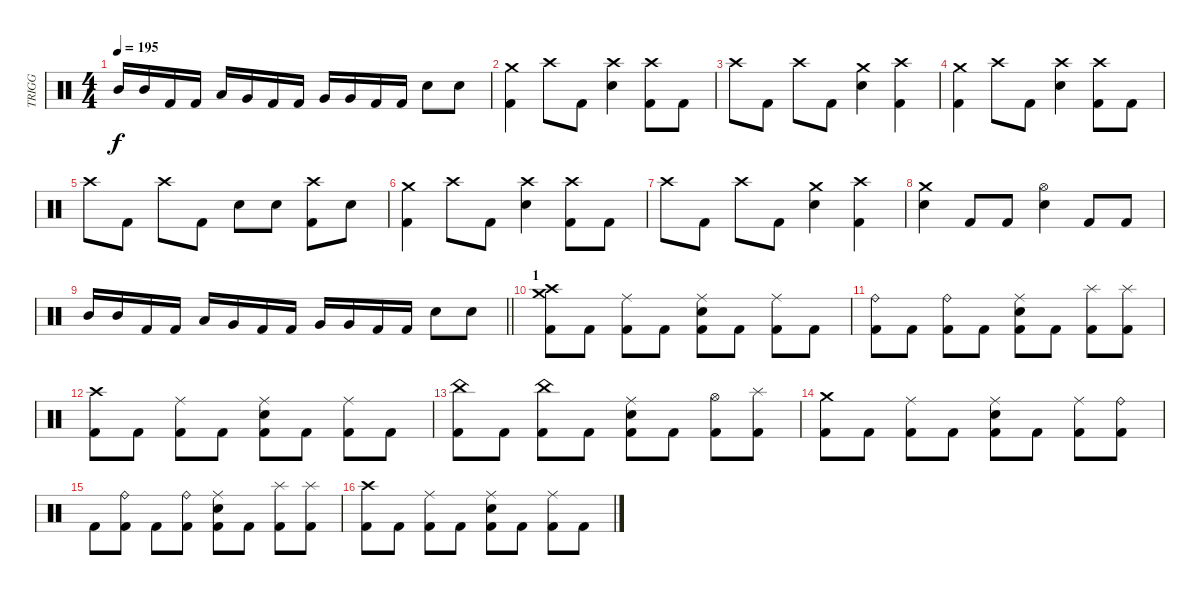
\track ("TRIGG" "TRIGG") {instrument percussion}
\staff {score}
\articulation defaults
\ts (4 4)
\tempo 195
\clef neutral
\ks c "Mid Tom (hit)".16{dy f} "Mid Tom (hit)".16 "Kick (hit) 2".16 "Kick (hit) 2".16 "Low Tom (hit)".16 "Very Low Tom (hit)".16 "Kick (hit) 2".16 "Kick (hit) 2".16 "Very Low Tom (hit)".16 "Very Low Tom (hit)".16 "Kick (hit) 2".16 "Kick (hit) 2".16 "Electric Snare (hit)".8 "Electric Snare (hit)".8
|
("Crash medium (hit)" "Kick (hit) 2").4 "Crash high (hit)".8 "Kick (hit) 2".8 ("Crash high (hit)" "Electric Snare (hit)").4 ("Crash high (hit)" "Kick (hit) 2").8 "Kick (hit) 2".8 |
"Crash high (hit)".8 "Kick (hit) 2".8 "Crash high (hit)".8 "Kick (hit) 2".8 ("Crash medium (hit)" "Electric Snare (hit)").4 ("Crash high (hit)" "Kick (hit) 2").4 |
("Crash medium (hit)" "Kick (hit) 2").4 "Crash high (hit)".8 "Kick (hit) 2".8 ("Crash high (hit)" "Electric Snare (hit)").4 ("Crash high (hit)" "Kick (hit) 2").8 "Kick (hit) 2".8 |
"Crash high (hit)".8 "Kick (hit) 2".8 "Crash high (hit)".8 "Kick (hit) 2".8 "Electric Snare (hit)".8 "Electric Snare (hit)".8 ("Crash high (hit)" "Kick (hit) 2").8 "Electric Snare (hit)".8 |
("Crash medium (hit)" "Kick (hit) 2").4 "Crash high (hit)".8 "Kick (hit) 2".8 ("Crash high (hit)" "Electric Snare (hit)").4 ("Crash high (hit)" "Kick (hit) 2").8 "Kick (hit) 2".8 |
"Crash high (hit)".8 "Kick (hit) 2".8 "Crash high (hit)".8 "Kick (hit) 2".8 ("Crash medium (hit)" "Electric Snare (hit)").4 ("Crash high (hit)" "Kick (hit) 2").4 |
("Crash medium (hit)" "Electric Snare (hit)").4 "Kick (hit) 2".8 "Kick (hit) 2".8 ("Hi-Hat (open)" "Electric Snare (hit)").4 "Kick (hit) 2".8 "Kick (hit) 2".8 |
\barLineRight lightlight "Mid Tom (hit)".16 "Mid Tom (hit)".16 "Kick (hit) 2".16 "Kick (hit) 2".16 "Low Tom (hit)".16 "Very Low Tom (hit)".16 "Kick (hit) 2".16 "Kick (hit) 2".16 "Very Low Tom (hit)".16 "Very Low Tom (hit)".16 "Kick (hit) 2".16 "Kick (hit) 2".16 "Electric Snare (hit)".8 "Electric Snare (hit)".8
|
\section ("" "1")
("Crash medium (hit)" "Crash high (hit)" "Kick (hit) 2").8 "Kick (hit) 2".8 ("Ride (middle)" "Kick (hit) 2").8 "Kick (hit) 2".8 ("Ride (middle)" "Electric Snare (hit)" "Kick (hit) 2").8 "Kick (hit) 2".8 ("Ride (middle)" "Kick (hit) 2").8 "Kick (hit) 2".8 |
("Ride (bell)" "Kick (hit) 2").8 "Kick (hit) 2".8 ("Ride (bell)" "Kick (hit) 2").8 "Kick (hit) 2".8 ("Ride (middle)" "Electric Snare (hit)" "Kick (hit) 2").8 "Kick (hit) 2".8 ("Splash (hit)" "Kick (hit) 2").8 ("Splash (hit)" "Kick (hit) 2").8 |
("Crash high (hit)" "Kick (hit) 2").8 "Kick (hit) 2".8 ("Ride (middle)" "Kick (hit) 2").8 "Kick (hit) 2".8 ("Ride (middle)" "Electric Snare (hit)" "Kick (hit) 2").8 "Kick (hit) 2".8 ("Ride (middle)" "Kick (hit) 2").8 "Kick (hit) 2".8 |
("China (hit)" "Kick (hit) 2").8 "Kick (hit) 2".8 ("China (hit)" "Kick (hit) 2").8 "Kick (hit) 2".8 ("Ride (middle)" "Electric Snare (hit)" "Kick (hit) 2").8 "Kick (hit) 2".8 ("Hi-Hat (open)" "Kick (hit) 2").8 ("Splash (hit)" "Kick (hit) 2").8 |
("Crash medium (hit)" "Kick (hit) 2").8 "Kick (hit) 2".8 ("Ride (middle)" "Kick (hit) 2").8 "Kick (hit) 2".8 ("Ride (middle)" "Electric Snare (hit)" "Kick (hit) 2").8 "Kick (hit) 2".8 ("Ride (middle)" "Kick (hit) 2").8 ("Ride (bell)" "Kick (hit) 2").8 |
"Kick (hit) 2".8 ("Ride (bell)" "Kick (hit) 2").8 "Kick (hit) 2".8 ("Ride (bell)" "Kick (hit) 2").8 ("Ride (middle)" "Electric Snare (hit)" "Kick (hit) 2").8 "Kick (hit) 2".8 ("Splash (hit)" "Kick (hit) 2").8 ("Splash (hit)" "Kick (hit) 2").8 |
("Crash high (hit)" "Kick (hit) 2").8 "Kick (hit) 2".8 ("Ride (middle)" "Kick (hit) 2").8 "Kick (hit) 2".8 ("Ride (middle)" "Electric Snare (hit)" "Kick (hit) 2").8 "Kick (hit) 2".8 ("Ride (middle)" "Kick (hit) 2").8 "Kick (hit) 2".8
